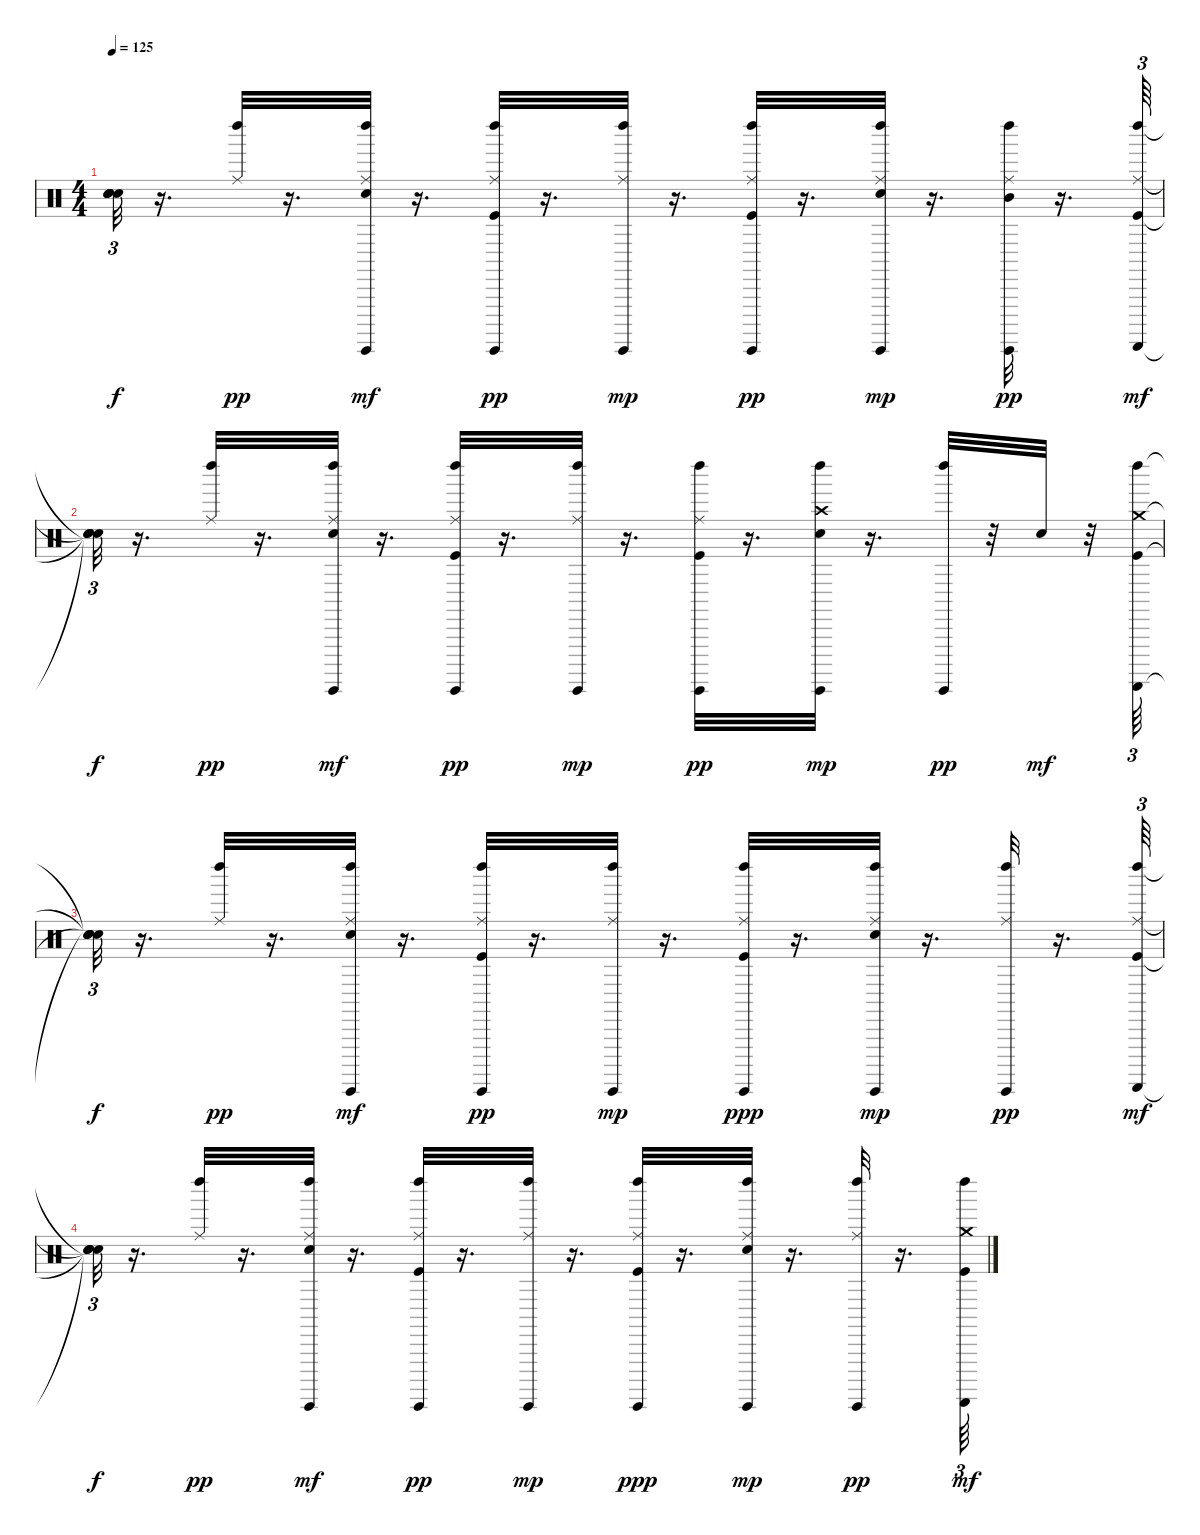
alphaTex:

\track "" {instrument percussion}
\staff {score}
\articulation defaults
\ts (4 4)
\tempo 125
\clef neutral
\ks c
("Snare (hit)"{t} "Snare (hit)"{t} "Snare (hit)"{t} "Snare (hit)"{t}).32{tu (3 2) dy f} r.16{d} ("Ride (middle)" "Left Maraca (hit)").32{dy pp} r.16{d} ("Left Maraca (hit)" "Ride (middle)" "Electric Snare (hit)" "Guiro (hit)").32{dy mf} r.16{d} ("Kick (hit)" "Left Maraca (hit)" "Ride (middle)" "Guiro (hit)").32{dy pp} r.16{d} ("Ride (middle)" "Left Maraca (hit)" "Guiro (hit)").32{dy mp} r.16{d} ("Left Maraca (hit)" "Ride (middle)" "Kick (hit)" "Guiro (hit)").32{dy pp} r.16{d} ("Electric Snare (hit)" "Left Maraca (hit)" "Ride (middle)" "Guiro (hit)").32{dy mp} r.16{d} ("Left Maraca (hit)" "Ride (middle)" "Mid Tom (hit)" "Guiro (hit)").32{dy pp} r.16{d} ("Kick (hit)" "Left Maraca (hit)" "Ride (middle)" "Guiro (scrap-return)").64{tu (3 2) dy mf} |
("Snare (hit)"{t} "Snare (hit)"{t} "Snare (hit)"{t} "Snare (hit)"{t}).32{tu (3 2) dy f} r.16{d} ("Ride (middle)" "Left Maraca (hit)").32{dy pp} r.16{d} ("Electric Snare (hit)" "Left Maraca (hit)" "Ride (middle)" "Guiro (hit)").32{dy mf} r.16{d} ("Ride (middle)" "Kick (hit)" "Left Maraca (hit)" "Guiro (hit)").32{dy pp} r.16{d} ("Left Maraca (hit)" "Ride (middle)" "Guiro (hit)").32{dy mp} r.16{d} ("Kick (hit)" "Left Maraca (hit)" "Ride (middle)" "Guiro (hit)").32{dy pp} r.16{d} ("Crash high (hit)" "Electric Snare (hit)" "Left Maraca (hit)" "Guiro (hit)").32{dy mp} r.16{d} ("Left Maraca (hit)" "Guiro (hit)").32{dy pp} r.32 "Electric Snare (hit)".32{dy mf} r.32 ("Crash medium (hit)" "Left Maraca (hit)" "Kick (hit)" "Guiro (scrap-return)").64{tu (3 2)} |
("Snare (hit)"{t} "Snare (hit)"{t} "Snare (hit)"{t} "Snare (hit)"{t}).32{tu (3 2) dy f} r.16{d} ("Left Maraca (hit)" "Ride (middle)").32{dy pp} r.16{d} ("Ride (middle)" "Electric Snare (hit)" "Left Maraca (hit)" "Guiro (hit)").32{dy mf} r.16{d} ("Ride (middle)" "Left Maraca (hit)" "Kick (hit)" "Guiro (hit)").32{dy pp} r.16{d} ("Left Maraca (hit)" "Ride (middle)" "Guiro (hit)").32{dy mp} r.16{d} ("Kick (hit)" "Ride (middle)" "Left Maraca (hit)" "Guiro (hit)").32{dy ppp} r.16{d} ("Left Maraca (hit)" "Ride (middle)" "Electric Snare (hit)" "Guiro (hit)").32{dy mp} r.16{d} ("Left Maraca (hit)" "Ride (middle)" "Guiro (hit)").32{dy pp} r.16{d} ("Kick (hit)" "Left Maraca (hit)" "Ride (middle)" "Guiro (scrap-return)").64{tu (3 2) dy mf} |
("Snare (hit)"{t} "Snare (hit)"{t} "Snare (hit)"{t} "Snare (hit)"{t}).32{tu (3 2) dy f} r.16{d} ("Left Maraca (hit)" "Ride (middle)").32{dy pp} r.16{d} ("Ride (middle)" "Left Maraca (hit)" "Electric Snare (hit)" "Guiro (hit)").32{dy mf} r.16{d} ("Left Maraca (hit)" "Ride (middle)" "Kick (hit)" "Guiro (hit)").32{dy pp} r.16{d} ("Left Maraca (hit)" "Ride (middle)" "Guiro (hit)").32{dy mp} r.16{d} ("Kick (hit)" "Left Maraca (hit)" "Ride (middle)" "Guiro (hit)").32{dy ppp} r.16{d} ("Electric Snare (hit)" "Left Maraca (hit)" "Ride (middle)" "Guiro (hit)").32{dy mp} r.16{d} ("Ride (middle)" "Left Maraca (hit)" "Guiro (hit)").32{dy pp} r.16{d} ("Kick (hit)" "Left Maraca (hit)" "Crash medium (hit)" "Guiro (scrap-return)").64{tu (3 2) dy mf}
